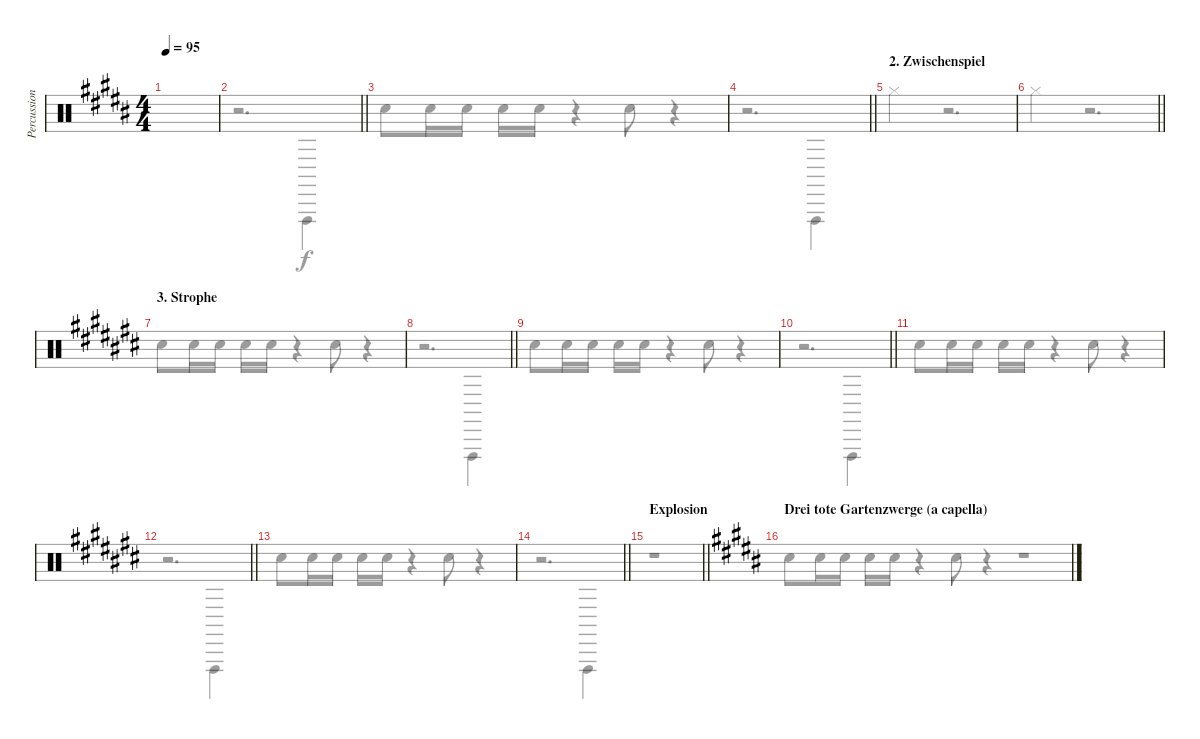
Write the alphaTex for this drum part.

\track ("Percussion" "Percussion") {instrument percussion}
\staff {score}
\articulation defaults
\voice
\ts (4 4)
\tempo 95
\clef neutral
\ks b
|
\barLineRight lightlight
|
|
\barLineRight lightlight
|
\section ("" "2. Zwischenspiel")
|
\barLineRight lightlight
|
\section ("" "3. Strophe")
\ks c#
|
\barLineRight lightlight
|
|
\barLineRight lightlight
|
|
\barLineRight lightlight
|
|
\barLineRight lightlight
|
\section ("" "Explosion")
\barLineRight lightlight
|
\section ("" "Drei tote Gartenzwerge (a capella)")
\voice
\clef neutral
\ks b "Snare (hit) 2".8{dy f} "Hand Clap (hit)".16 "Hand Clap (hit)".16 "Hand Clap (hit)".16 "Hand Clap (hit)".16
r.4 "Electric Snare (hit)".8 r.4 |
\barLineRight lightlight
r.2{d} "Vibraslap (hit)".4 |
"Snare (hit) 2".8 "Hand Clap (hit)".16 "Hand Clap (hit)".16 "Hand Clap (hit)".16 "Hand Clap (hit)".16 r.4 "Electric Snare (hit)".8 r.4 |
\barLineRight lightlight
r.2{d} "Vibraslap (hit)".4 |
"Hi-Hat (closed)".4 r.2{d} |
\barLineRight lightlight "Hi-Hat (closed)".4
r.2{d} |
\ks c# "Snare (hit) 2".8 "Hand Clap (hit)".16 "Hand Clap (hit)".16 "Hand Clap (hit)".16 "Hand Clap (hit)".16
r.4 "Electric Snare (hit)".8 r.4 |
\barLineRight lightlight
r.2{d} "Vibraslap (hit)".4 |
"Snare (hit) 2".8 "Hand Clap (hit)".16 "Hand Clap (hit)".16 "Hand Clap (hit)".16 "Hand Clap (hit)".16 r.4 "Electric Snare (hit)".8 r.4 |
\barLineRight lightlight
r.2{d} "Vibraslap (hit)".4 |
"Snare (hit) 2".8 "Hand Clap (hit)".16 "Hand Clap (hit)".16 "Hand Clap (hit)".16 "Hand Clap (hit)".16 r.4 "Electric Snare (hit)".8 r.4 |
\barLineRight lightlight
r.2{d} "Vibraslap (hit)".4 |
"Snare (hit) 2".8 "Hand Clap (hit)".16 "Hand Clap (hit)".16 "Hand Clap (hit)".16 "Hand Clap (hit)".16 r.4 "Electric Snare (hit)".8 r.4 |
\barLineRight lightlight
r.2{d} "Vibraslap (hit)".4 |
\barLineRight lightlight
r.1 |
r.1
